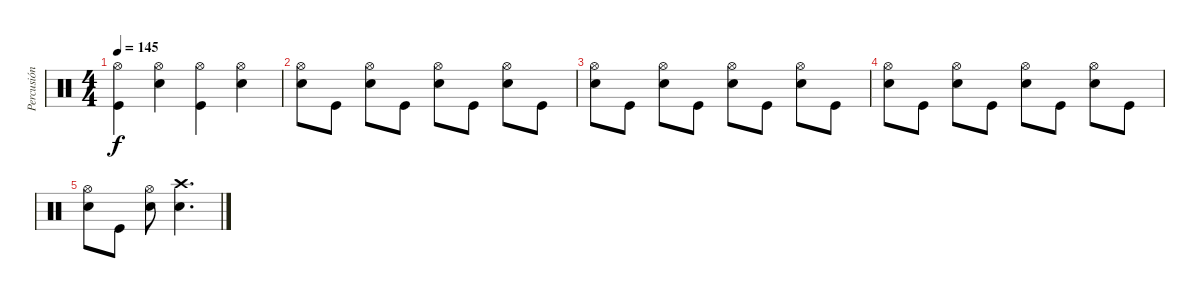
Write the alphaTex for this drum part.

\track ("Percusión" "Percusión") {instrument percussion}
\staff {score}
\articulation defaults
\ts (4 4)
\tempo 145
\clef neutral
\ks c
("Hi-Hat (open)" "Kick (hit)").4{dy f} ("Hi-Hat (open)" "Snare (hit) 2").4 ("Hi-Hat (open)" "Kick (hit)").4 ("Hi-Hat (open)" "Snare (hit) 2").4 |
("Hi-Hat (open)" "Snare (hit) 2").8 "Kick (hit)".8 ("Hi-Hat (open)" "Snare (hit) 2").8 "Kick (hit)".8 ("Hi-Hat (open)" "Snare (hit) 2").8 "Kick (hit)".8 ("Hi-Hat (open)" "Snare (hit) 2").8 "Kick (hit)".8 |
("Hi-Hat (open)" "Snare (hit) 2").8 "Kick (hit)".8 ("Hi-Hat (open)" "Snare (hit) 2").8 "Kick (hit)".8 ("Hi-Hat (open)" "Snare (hit) 2").8 "Kick (hit)".8 ("Hi-Hat (open)" "Snare (hit) 2").8 "Kick (hit)".8 |
("Hi-Hat (open)" "Snare (hit) 2").8 "Kick (hit)".8 ("Hi-Hat (open)" "Snare (hit) 2").8 "Kick (hit)".8 ("Hi-Hat (open)" "Snare (hit) 2").8 "Kick (hit)".8 ("Hi-Hat (open)" "Snare (hit) 2").8 "Kick (hit)".8 |
("Hi-Hat (open)" "Snare (hit) 2").8 "Kick (hit)".8 ("Hi-Hat (open)" "Snare (hit) 2").8 ("Crash high (hit)" "Snare (hit) 2").4{d}
